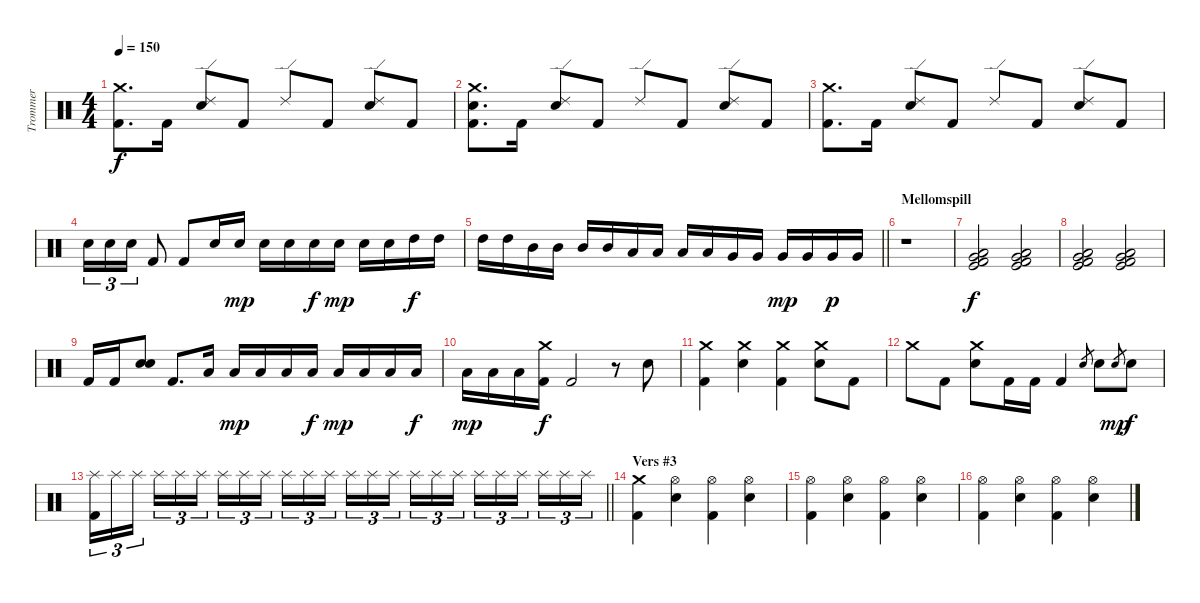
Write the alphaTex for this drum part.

\track ("Trommer" "Trommer") {instrument percussion}
\staff {score}
\articulation defaults
\ts (4 4)
\tempo 150
\clef neutral
\ks c
("Crash medium (hit)" "Kick (hit) 2").8{d dy f} "Kick (hit) 2".16 ("Ride (edge) 2" "Snare (hit) 2").8 "Kick (hit) 2".8 "Ride (edge) 2".8 "Kick (hit) 2".8 ("Ride (edge) 2" "Snare (hit) 2").8 "Kick (hit) 2".8 |
("Crash medium (hit)" "Snare (hit) 2" "Kick (hit) 2").8{d} "Kick (hit) 2".16 ("Ride (edge) 2" "Snare (hit) 2").8 "Kick (hit) 2".8 "Ride (edge) 2".8 "Kick (hit) 2".8 ("Ride (edge) 2" "Snare (hit) 2").8 "Kick (hit) 2".8 |
("Crash medium (hit)" "Kick (hit) 2").8{d} "Kick (hit) 2".16 ("Ride (edge) 2" "Snare (hit) 2").8 "Kick (hit) 2".8 "Ride (edge) 2".8 "Kick (hit) 2".8 ("Ride (edge) 2" "Snare (hit) 2").8 "Kick (hit) 2".8 |
"Snare (hit) 2".16{tu (3 2)} "Snare (hit) 2".16{tu (3 2)} "Snare (hit) 2".16{tu (3 2)} "Kick (hit) 2".8 "Kick (hit) 2".8 "Snare (hit) 2".16 "Snare (hit) 2".16{dy mp} "Snare (hit) 2".16 "Snare (hit) 2".16 "Snare (hit) 2".16{dy f} "Snare (hit) 2".16{dy mp} "Snare (hit) 2".16 "Snare (hit) 2".16 "High Tom (hit)".16{dy f} "High Tom (hit)".16 |
\barLineRight lightlight "High Tom (hit)".16 "High Tom (hit)".16 "Mid Tom (hit)".16 "Mid Tom (hit)".16 "Mid Tom (hit)".16 "Mid Tom (hit)".16 "Low Tom (hit)".16 "Low Tom (hit)".16 "Low Tom (hit)".16 "Low Tom (hit)".16 "Very Low Tom (hit)".16 "Very Low Tom (hit)".16 "Very Low Tom (hit)".16{dy mp} "Very Low Tom (hit)".16 "Very Low Tom (hit)".16{dy p} "Very Low Tom (hit)".16
|
\section ("" "Mellomspill")
r.1 |
("Kick (hit)" "Very Low Tom (hit)" "Low Floor Tom (hit)" "Kick (hit) 2").2{dy f} ("Kick (hit)" "Very Low Tom (hit)" "Low Floor Tom (hit)" "Kick (hit) 2").2 |
("Kick (hit)" "Very Low Tom (hit)" "Low Floor Tom (hit)" "Kick (hit) 2").2 ("Kick (hit)" "Very Low Tom (hit)" "Low Floor Tom (hit)" "Kick (hit) 2").2 |
"Kick (hit) 2".16 "Kick (hit) 2".16 ("Snare (hit) 2" "Snare (hit) 2").8 "Kick (hit) 2".8{d} "Low Floor Tom (hit)".16 "Low Floor Tom (hit)".16{dy mp} "Low Floor Tom (hit)".16 "Low Floor Tom (hit)".16 "Low Floor Tom (hit)".16{dy f} "Low Floor Tom (hit)".16{dy mp} "Low Floor Tom (hit)".16 "Low Floor Tom (hit)".16 "Low Floor Tom (hit)".16{dy f} |
"Low Floor Tom (hit)".16{dy mp} "Low Floor Tom (hit)".16 "Low Floor Tom (hit)".16 ("Crash medium (hit)" "Kick (hit) 2").16{dy f} "Kick (hit) 2".2 r.8 "Snare (hit) 2".8 |
("Crash medium (hit)" "Kick (hit) 2").4 ("Crash medium (hit)" "Snare (hit) 2").4 ("Crash medium (hit)" "Kick (hit) 2").4 ("Crash medium (hit)" "Snare (hit) 2").8 "Kick (hit) 2".8 |
"Crash medium (hit)".8 "Kick (hit) 2".8 ("Crash medium (hit)" "Snare (hit) 2").8 "Kick (hit) 2".16 "Kick (hit) 2".16 "Kick (hit) 2".4 "Snare (hit) 2".8{gr} "Snare (hit) 2".8 "Snare (hit) 2".8{gr dy mp} "Snare (hit) 2".8{dy f} |
\barLineRight lightlight
("Splash (hit)" "Kick (hit) 2").16{tu (3 2)} "Splash (hit)".16{tu (3 2)} "Splash (hit)".16{tu (3 2) beam splitsecondary} "Splash (hit)".16{tu (3 2)} "Splash (hit)".16{tu (3 2)} "Splash (hit)".16{tu (3 2)} "Splash (hit)".16{tu (3 2)} "Splash (hit)".16{tu (3 2)} "Splash (hit)".16{tu (3 2) beam splitsecondary} "Splash (hit)".16{tu (3 2)} "Splash (hit)".16{tu (3 2)} "Splash (hit)".16{tu (3 2)} "Splash (hit)".16{tu (3 2)} "Splash (hit)".16{tu (3 2)} "Splash (hit)".16{tu (3 2) beam splitsecondary} "Splash (hit)".16{tu (3 2)} "Splash (hit)".16{tu (3 2)} "Splash (hit)".16{tu (3 2)} "Splash (hit)".16{tu (3 2)} "Splash (hit)".16{tu (3 2)} "Splash (hit)".16{tu (3 2) beam splitsecondary} "Splash (hit)".16{tu (3 2)} "Splash (hit)".16{tu (3 2)} "Splash (hit)".16{tu (3 2)} |
\section ("" "Vers #3")
("Crash medium (hit)" "Kick (hit) 2").4 ("Hi-Hat (open)" "Snare (hit) 2").4 ("Hi-Hat (open)" "Kick (hit) 2").4 ("Hi-Hat (open)" "Snare (hit) 2").4 |
("Hi-Hat (open)" "Kick (hit) 2").4 ("Hi-Hat (open)" "Snare (hit) 2").4 ("Hi-Hat (open)" "Kick (hit) 2").4 ("Hi-Hat (open)" "Snare (hit) 2").4 |
("Hi-Hat (open)" "Kick (hit) 2").4 ("Hi-Hat (open)" "Snare (hit) 2").4 ("Hi-Hat (open)" "Kick (hit) 2").4 ("Hi-Hat (open)" "Snare (hit) 2").4
